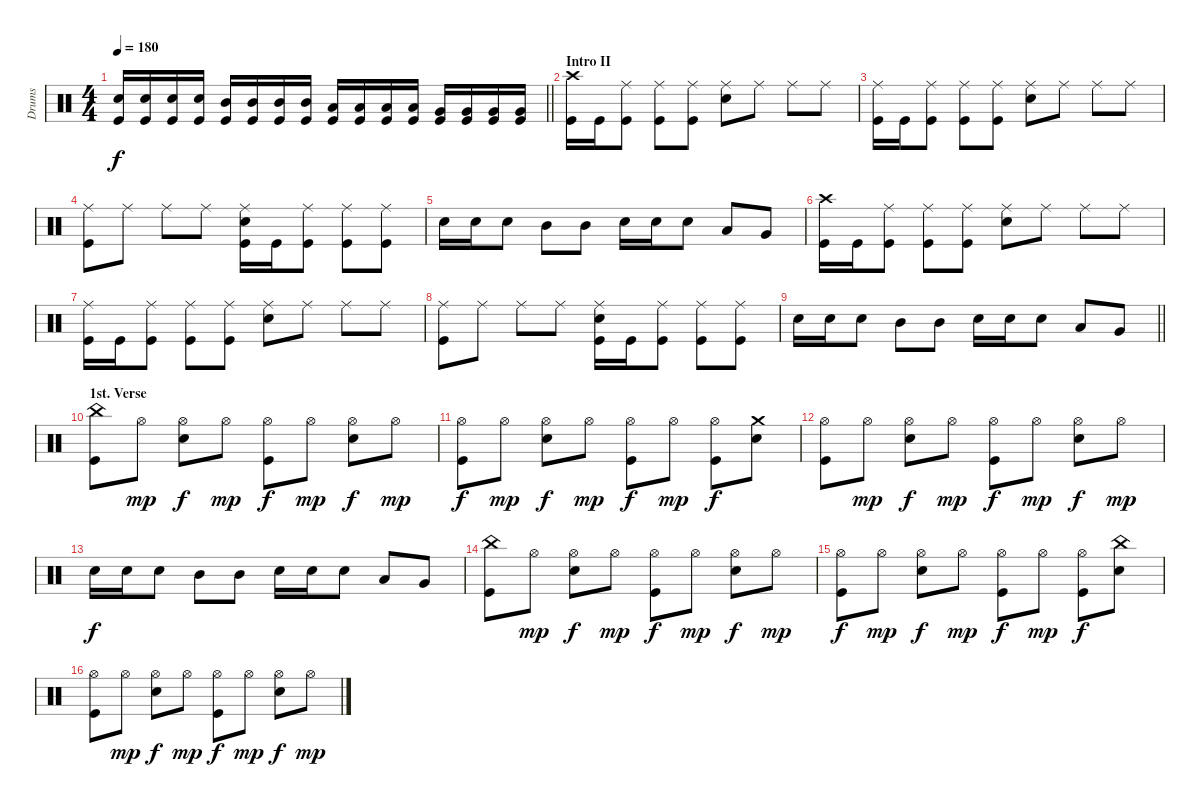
\track ("Drums" "Drums") {instrument percussion}
\staff {score}
\articulation defaults
\ts (4 4)
\tempo 180
\clef neutral
\barLineRight lightlight
\ks c
("Electric Snare (hit)" "Kick (hit)").16{dy f} ("Electric Snare (hit)" "Kick (hit)").16 ("Electric Snare (hit)" "Kick (hit)").16 ("Electric Snare (hit)" "Kick (hit)").16 ("Mid Tom (hit)" "Kick (hit)").16 ("Mid Tom (hit)" "Kick (hit)").16 ("Mid Tom (hit)" "Kick (hit)").16 ("Mid Tom (hit)" "Kick (hit)").16 ("Low Tom (hit)" "Kick (hit)").16 ("Low Tom (hit)" "Kick (hit)").16 ("Low Tom (hit)" "Kick (hit)").16 ("Low Tom (hit)" "Kick (hit)").16 ("Very Low Tom (hit)" "Kick (hit)").16 ("Very Low Tom (hit)" "Kick (hit)").16 ("Very Low Tom (hit)" "Kick (hit)").16 ("Very Low Tom (hit)" "Kick (hit)").16 |
\section ("" "Intro II")
("Crash high (hit)" "Kick (hit)").16 "Kick (hit)".16 ("Ride (middle)" "Kick (hit)").8 ("Ride (middle)" "Kick (hit)").8 ("Ride (middle)" "Kick (hit)").8 ("Ride (middle)" "Electric Snare (hit)").8 "Ride (middle)".8 "Ride (middle)".8 "Ride (middle)".8 |
("Ride (middle)" "Kick (hit)").16 "Kick (hit)".16 ("Ride (middle)" "Kick (hit)").8 ("Ride (middle)" "Kick (hit)").8 ("Ride (middle)" "Kick (hit)").8 ("Ride (middle)" "Electric Snare (hit)").8 "Ride (middle)".8 "Ride (middle)".8 "Ride (middle)".8 |
("Ride (middle)" "Kick (hit)").8 "Ride (middle)".8 "Ride (middle)".8 "Ride (middle)".8 ("Ride (middle)" "Electric Snare (hit)" "Kick (hit)").16 "Kick (hit)".16 ("Ride (middle)" "Kick (hit)").8 ("Ride (middle)" "Kick (hit)").8 ("Ride (middle)" "Kick (hit)").8 |
"Electric Snare (hit)".16 "Electric Snare (hit)".16 "Electric Snare (hit)".8 "Mid Tom (hit)".8 "Mid Tom (hit)".8 "Electric Snare (hit)".16 "Electric Snare (hit)".16 "Electric Snare (hit)".8 "Low Tom (hit)".8 "Very Low Tom (hit)".8 |
("Crash high (hit)" "Kick (hit)").16 "Kick (hit)".16 ("Ride (middle)" "Kick (hit)").8 ("Ride (middle)" "Kick (hit)").8 ("Ride (middle)" "Kick (hit)").8 ("Ride (middle)" "Electric Snare (hit)").8 "Ride (middle)".8 "Ride (middle)".8 "Ride (middle)".8 |
("Ride (middle)" "Kick (hit)").16 "Kick (hit)".16 ("Ride (middle)" "Kick (hit)").8 ("Ride (middle)" "Kick (hit)").8 ("Ride (middle)" "Kick (hit)").8 ("Ride (middle)" "Electric Snare (hit)").8 "Ride (middle)".8 "Ride (middle)".8 "Ride (middle)".8 |
("Ride (middle)" "Kick (hit)").8 "Ride (middle)".8 "Ride (middle)".8 "Ride (middle)".8 ("Ride (middle)" "Electric Snare (hit)" "Kick (hit)").16 "Kick (hit)".16 ("Ride (middle)" "Kick (hit)").8 ("Ride (middle)" "Kick (hit)").8 ("Ride (middle)" "Kick (hit)").8 |
\barLineRight lightlight "Electric Snare (hit)".16 "Electric Snare (hit)".16 "Electric Snare (hit)".8 "Mid Tom (hit)".8 "Mid Tom (hit)".8 "Electric Snare (hit)".16 "Electric Snare (hit)".16 "Electric Snare (hit)".8 "Low Tom (hit)".8 "Very Low Tom (hit)".8
|
\section ("" "1st. Verse")
("China (hit)" "Kick (hit)").8 "Hi-Hat (open)".8{dy mp} ("Hi-Hat (open)" "Electric Snare (hit)").8{dy f} "Hi-Hat (open)".8{dy mp} ("Hi-Hat (open)" "Kick (hit)").8{dy f} "Hi-Hat (open)".8{dy mp} ("Hi-Hat (open)" "Electric Snare (hit)").8{dy f} "Hi-Hat (open)".8{dy mp} |
("Hi-Hat (open)" "Kick (hit)").8{dy f} "Hi-Hat (open)".8{dy mp} ("Hi-Hat (open)" "Electric Snare (hit)").8{dy f} "Hi-Hat (open)".8{dy mp} ("Hi-Hat (open)" "Kick (hit)").8{dy f} "Hi-Hat (open)".8{dy mp} ("Hi-Hat (open)" "Kick (hit)").8{dy f} ("Crash medium (hit)" "Electric Snare (hit)").8 |
("Hi-Hat (open)" "Kick (hit)").8 "Hi-Hat (open)".8{dy mp} ("Hi-Hat (open)" "Electric Snare (hit)").8{dy f} "Hi-Hat (open)".8{dy mp} ("Hi-Hat (open)" "Kick (hit)").8{dy f} "Hi-Hat (open)".8{dy mp} ("Hi-Hat (open)" "Electric Snare (hit)").8{dy f} "Hi-Hat (open)".8{dy mp} |
"Electric Snare (hit)".16{dy f} "Electric Snare (hit)".16 "Electric Snare (hit)".8 "Mid Tom (hit)".8 "Mid Tom (hit)".8 "Electric Snare (hit)".16 "Electric Snare (hit)".16 "Electric Snare (hit)".8 "Low Tom (hit)".8 "Very Low Tom (hit)".8 |
("China (hit)" "Kick (hit)").8 "Hi-Hat (open)".8{dy mp} ("Hi-Hat (open)" "Electric Snare (hit)").8{dy f} "Hi-Hat (open)".8{dy mp} ("Hi-Hat (open)" "Kick (hit)").8{dy f} "Hi-Hat (open)".8{dy mp} ("Hi-Hat (open)" "Electric Snare (hit)").8{dy f} "Hi-Hat (open)".8{dy mp} |
("Hi-Hat (open)" "Kick (hit)").8{dy f} "Hi-Hat (open)".8{dy mp} ("Hi-Hat (open)" "Electric Snare (hit)").8{dy f} "Hi-Hat (open)".8{dy mp} ("Hi-Hat (open)" "Kick (hit)").8{dy f} "Hi-Hat (open)".8{dy mp} ("Hi-Hat (open)" "Kick (hit)").8{dy f} ("China (hit)" "Electric Snare (hit)").8 |
("Hi-Hat (open)" "Kick (hit)").8 "Hi-Hat (open)".8{dy mp} ("Hi-Hat (open)" "Electric Snare (hit)").8{dy f} "Hi-Hat (open)".8{dy mp} ("Hi-Hat (open)" "Kick (hit)").8{dy f} "Hi-Hat (open)".8{dy mp} ("Hi-Hat (open)" "Electric Snare (hit)").8{dy f} "Hi-Hat (open)".8{dy mp}
